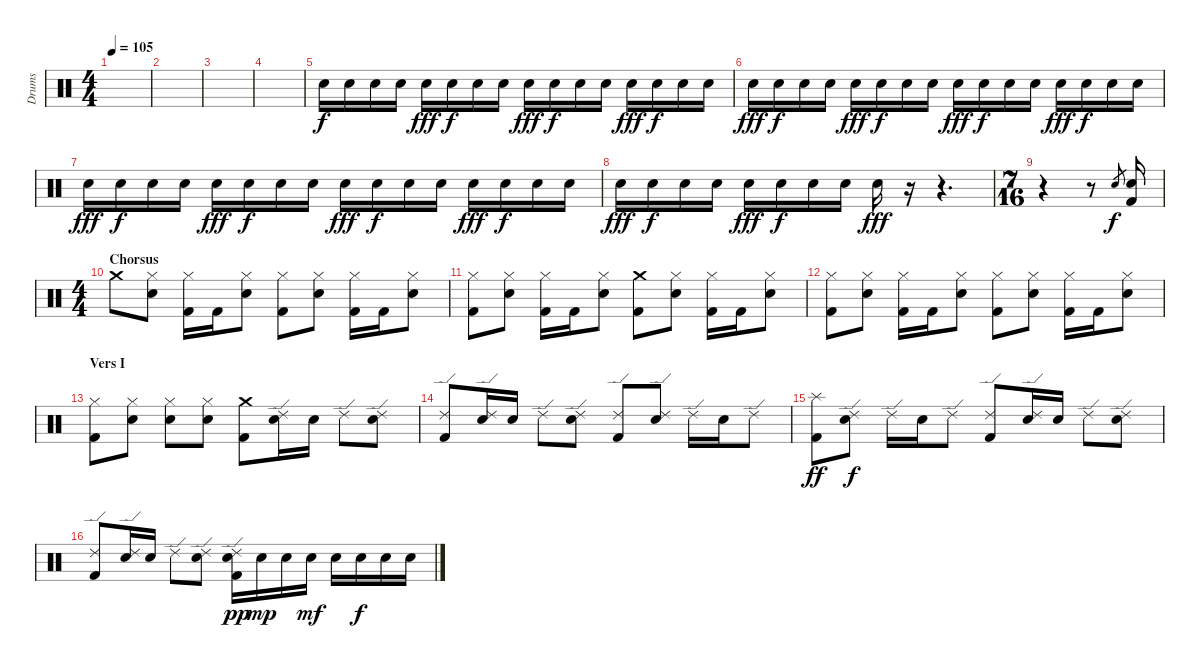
\track ("Drums" "Drums") {instrument percussion}
\staff {score}
\articulation defaults
\ts (4 4)
\tempo 105
\clef neutral
\ks c
|
|
|
|
"Electric Snare (hit)".16{volume 6} "Electric Snare (hit)".16{dy f} "Electric Snare (hit)".16 "Electric Snare (hit)".16 "Electric Snare (hit)".16{dy fff} "Electric Snare (hit)".16{dy f} "Electric Snare (hit)".16 "Electric Snare (hit)".16 "Electric Snare (hit)".16{dy fff} "Electric Snare (hit)".16{dy f} "Electric Snare (hit)".16 "Electric Snare (hit)".16 "Electric Snare (hit)".16{dy fff} "Electric Snare (hit)".16{dy f} "Electric Snare (hit)".16 "Electric Snare (hit)".16 |
"Electric Snare (hit)".16{dy fff} "Electric Snare (hit)".16{dy f} "Electric Snare (hit)".16 "Electric Snare (hit)".16 "Electric Snare (hit)".16{dy fff} "Electric Snare (hit)".16{dy f} "Electric Snare (hit)".16 "Electric Snare (hit)".16 "Electric Snare (hit)".16{dy fff} "Electric Snare (hit)".16{dy f} "Electric Snare (hit)".16 "Electric Snare (hit)".16 "Electric Snare (hit)".16{dy fff} "Electric Snare (hit)".16{dy f} "Electric Snare (hit)".16 "Electric Snare (hit)".16 |
"Electric Snare (hit)".16{dy fff} "Electric Snare (hit)".16{dy f} "Electric Snare (hit)".16 "Electric Snare (hit)".16 "Electric Snare (hit)".16{dy fff} "Electric Snare (hit)".16{dy f} "Electric Snare (hit)".16 "Electric Snare (hit)".16 "Electric Snare (hit)".16{dy fff} "Electric Snare (hit)".16{dy f} "Electric Snare (hit)".16 "Electric Snare (hit)".16 "Electric Snare (hit)".16{dy fff} "Electric Snare (hit)".16{dy f} "Electric Snare (hit)".16 "Electric Snare (hit)".16 |
"Electric Snare (hit)".16{dy fff} "Electric Snare (hit)".16{dy f} "Electric Snare (hit)".16 "Electric Snare (hit)".16 "Electric Snare (hit)".16{dy fff} "Electric Snare (hit)".16{dy f} "Electric Snare (hit)".16 "Electric Snare (hit)".16 "Electric Snare (hit)".16{dy fff} r.16 r.4{d} |
\ts (7 16)
r.4{volume 10} r.8 "Electric Snare (hit)".8{gr dy f} ("Electric Snare (hit)" "Kick (hit) 2").16 |
\ts (4 4)
\section ("" "Chorsus")
"Crash medium (hit)".8 ("Hi-Hat (closed)" "Electric Snare (hit)").8 ("Hi-Hat (closed)" "Kick (hit) 2").16 "Kick (hit) 2".16 ("Hi-Hat (closed)" "Electric Snare (hit)").8 ("Hi-Hat (closed)" "Kick (hit) 2").8 ("Hi-Hat (closed)" "Electric Snare (hit)").8 ("Hi-Hat (closed)" "Kick (hit) 2").16 "Kick (hit) 2".16 ("Hi-Hat (closed)" "Electric Snare (hit)").8 |
("Hi-Hat (closed)" "Kick (hit) 2").8 ("Hi-Hat (closed)" "Electric Snare (hit)").8 ("Hi-Hat (closed)" "Kick (hit) 2").16 "Kick (hit) 2".16 ("Hi-Hat (closed)" "Electric Snare (hit)").8 ("Crash medium (hit)" "Kick (hit) 2").8 ("Hi-Hat (closed)" "Electric Snare (hit)").8 ("Hi-Hat (closed)" "Kick (hit) 2").16 "Kick (hit) 2".16 ("Hi-Hat (closed)" "Electric Snare (hit)").8 |
("Hi-Hat (closed)" "Kick (hit) 2").8 ("Hi-Hat (closed)" "Electric Snare (hit)").8 ("Hi-Hat (closed)" "Kick (hit) 2").16 "Kick (hit) 2".16 ("Hi-Hat (closed)" "Electric Snare (hit)").8 ("Hi-Hat (closed)" "Kick (hit) 2").8 ("Hi-Hat (closed)" "Electric Snare (hit)").8 ("Hi-Hat (closed)" "Kick (hit) 2").16 "Kick (hit) 2".16 ("Hi-Hat (closed)" "Electric Snare (hit)").8 |
\section ("" "Vers I")
("Hi-Hat (closed)" "Kick (hit) 2").8 ("Hi-Hat (closed)" "Electric Snare (hit)").8 ("Hi-Hat (closed)" "Electric Snare (hit)").8 ("Hi-Hat (closed)" "Electric Snare (hit)").8 ("Crash medium (hit)" "Kick (hit) 2").8 ("Ride (edge) 2" "Electric Snare (hit)").16 "Electric Snare (hit)".16 "Ride (edge) 2".8 ("Ride (edge) 2" "Electric Snare (hit)").8 |
("Ride (edge) 2" "Kick (hit) 2").8 ("Ride (edge) 2" "Electric Snare (hit)").16 "Electric Snare (hit)".16 "Ride (edge) 2".8 ("Ride (edge) 2" "Electric Snare (hit)").8 ("Ride (edge) 2" "Kick (hit) 2").8 ("Ride (edge) 2" "Electric Snare (hit)").8 "Ride (edge) 2".16 "Electric Snare (hit)".16 "Ride (edge) 2".8 |
("Splash (hit)" "Kick (hit) 2").8{dy ff} ("Ride (edge) 2" "Electric Snare (hit)").8{dy f} "Ride (edge) 2".16 "Electric Snare (hit)".16 "Ride (edge) 2".8 ("Ride (edge) 2" "Kick (hit) 2").8 ("Ride (edge) 2" "Electric Snare (hit)").16 "Electric Snare (hit)".16 "Ride (edge) 2".8 ("Ride (edge) 2" "Electric Snare (hit)").8 |
("Ride (edge) 2" "Kick (hit) 2").8 ("Ride (edge) 2" "Electric Snare (hit)").16 "Electric Snare (hit)".16 "Ride (edge) 2".8 ("Ride (edge) 2" "Electric Snare (hit)").8 ("Ride (edge) 2" "Electric Snare (hit)" "Kick (hit) 2").16{dy pp} "Electric Snare (hit)".16{dy mp} "Electric Snare (hit)".16 "Electric Snare (hit)".16{dy mf} "Electric Snare (hit)".16 "Electric Snare (hit)".16{dy f} "Electric Snare (hit)".16 "Electric Snare (hit)".16
